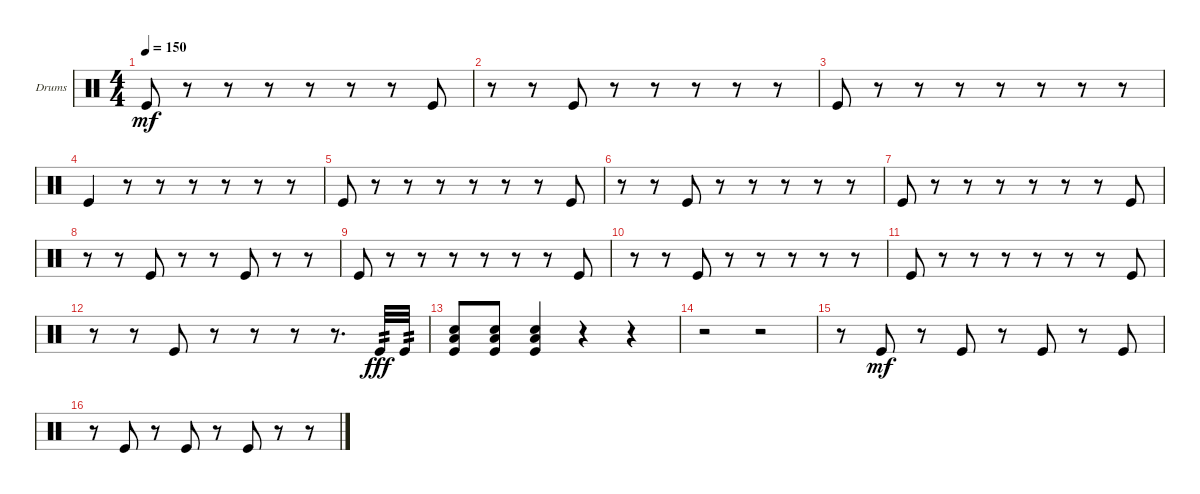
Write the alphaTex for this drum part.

\bracketExtendMode groupsimilarinstruments
\firstSystemTrackNameOrientation horizontal
\otherSystemsTrackNameOrientation horizontal
\track ("Drumkit Kick" "Drums ") {instrument percussion}
\staff {score}
\articulation defaults
\ts (4 4)
\tempo 150
\clef neutral
\scale
0.333333
\ks c "Kick (hit)".8{dy mf}
r.8 r.8 r.8 r.8 r.8 r.8 "Kick (hit)".8 |
\scale
0.333333 r.8 r.8 "Kick (hit)".8 r.8 r.8 r.8 r.8 r.8 |
\scale
0.333333 "Kick (hit)".8 r.8 r.8 r.8 r.8 r.8 r.8 r.8 |
\scale
0.333333 "Kick (hit)".4 r.8 r.8 r.8 r.8 r.8 r.8 |
\scale
0.333333 "Kick (hit)".8 r.8 r.8 r.8 r.8 r.8 r.8 "Kick (hit)".8 |
\scale
0.333333 r.8 r.8 "Kick (hit)".8 r.8 r.8 r.8 r.8 r.8 |
\scale
0.333333 "Kick (hit)".8 r.8 r.8 r.8 r.8 r.8 r.8 "Kick (hit)".8 |
\scale
0.333333 r.8 r.8 "Kick (hit)".8 r.8 r.8 "Kick (hit)".8 r.8 r.8 |
\scale
0.333333 "Kick (hit)".8 r.8 r.8 r.8 r.8 r.8 r.8 "Kick (hit)".8 |
\scale
0.333333 r.8 r.8 "Kick (hit)".8 r.8 r.8 r.8 r.8 r.8 |
\scale
0.333333 "Kick (hit)".8 r.8 r.8 r.8 r.8 r.8 r.8 "Kick (hit)".8 |
\scale
0.333333 r.8 r.8 "Kick (hit)".8 r.8 r.8 r.8 r.8{d} "Kick (hit)".32{tp 2 dy fff} "Kick (hit)".32{tp 2} |
\scale
0.333333 ("Snare (hit) 2" "Kick (hit)" "Low Tom (hit)").8 ("Snare (hit) 2" "Kick (hit)" "Low Tom (hit)").8 ("Snare (hit) 2" "Kick (hit)" "Low Tom (hit)").4 r.4 r.4 |
\scale
0.333333 r.2 r.2 |
\scale
0.333333 r.8 "Kick (hit)".8{dy mf} r.8 "Kick (hit)".8 r.8 "Kick (hit)".8 r.8 "Kick (hit)".8 |
\scale
0.333333 r.8 "Kick (hit)".8 r.8 "Kick (hit)".8 r.8 "Kick (hit)".8 r.8 r.8
